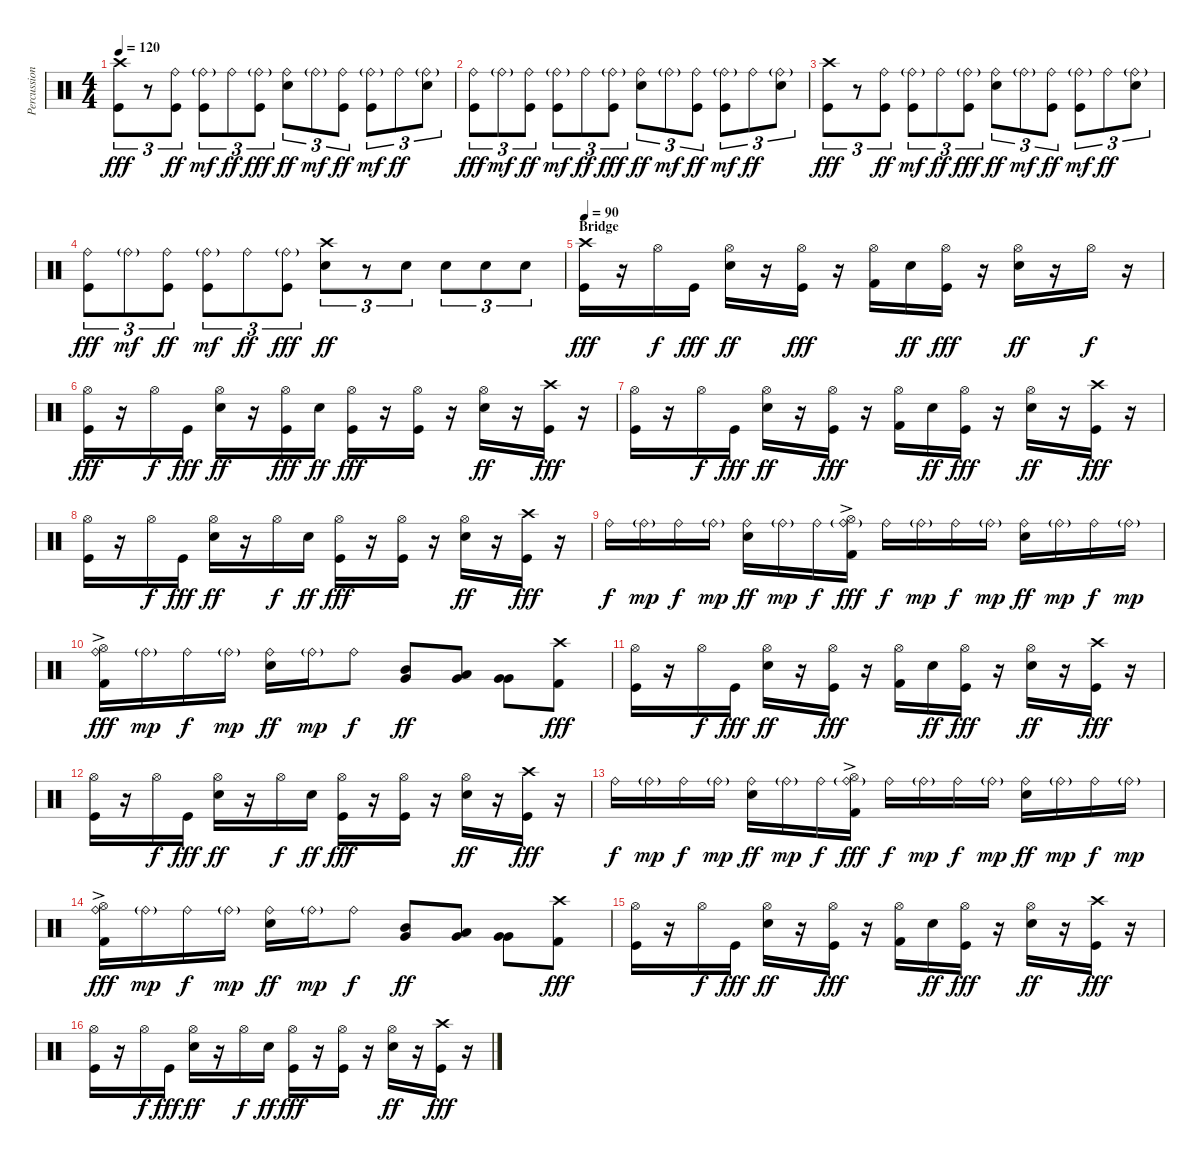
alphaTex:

\track ("Percussion" "Percussion") {instrument percussion}
\staff {score}
\articulation defaults
\ts (4 4)
\tempo 120
\clef neutral
\ks c
("Crash high (hit)" "Kick (hit)").8{tu (3 2) dy fff} r.8{tu (3 2)} ("Ride (bell)" "Kick (hit)").8{tu (3 2) dy ff} ("Ride (bell)"{g} "Kick (hit)").8{tu (3 2) dy mf} "Ride (bell)".8{tu (3 2) dy ff} ("Ride (bell)"{g} "Kick (hit)").8{tu (3 2) dy fff} ("Ride (bell)" "Snare (hit) 2").8{tu (3 2) dy ff} "Ride (bell)"{g}.8{tu (3 2) dy mf} ("Ride (bell)" "Kick (hit)").8{tu (3 2) dy ff} ("Ride (bell)"{g} "Kick (hit)").8{tu (3 2) dy mf} "Ride (bell)".8{tu (3 2) dy ff} ("Ride (bell)"{g} "Snare (hit) 2").8{tu (3 2)} |
("Ride (bell)" "Kick (hit)").8{tu (3 2) dy fff} "Ride (bell)"{g}.8{tu (3 2) dy mf} ("Ride (bell)" "Kick (hit)").8{tu (3 2) dy ff} ("Ride (bell)"{g} "Kick (hit)").8{tu (3 2) dy mf} "Ride (bell)".8{tu (3 2) dy ff} ("Ride (bell)"{g} "Kick (hit)").8{tu (3 2) dy fff} ("Ride (bell)" "Snare (hit) 2").8{tu (3 2) dy ff} "Ride (bell)"{g}.8{tu (3 2) dy mf} ("Ride (bell)" "Kick (hit)").8{tu (3 2) dy ff} ("Ride (bell)"{g} "Kick (hit)").8{tu (3 2) dy mf} "Ride (bell)".8{tu (3 2) dy ff} ("Ride (bell)"{g} "Snare (hit) 2").8{tu (3 2)} |
("Crash high (hit)" "Kick (hit)").8{tu (3 2) dy fff} r.8{tu (3 2)} ("Ride (bell)" "Kick (hit)").8{tu (3 2) dy ff} ("Ride (bell)"{g} "Kick (hit)").8{tu (3 2) dy mf} "Ride (bell)".8{tu (3 2) dy ff} ("Ride (bell)"{g} "Kick (hit)").8{tu (3 2) dy fff} ("Ride (bell)" "Snare (hit) 2").8{tu (3 2) dy ff} "Ride (bell)"{g}.8{tu (3 2) dy mf} ("Ride (bell)" "Kick (hit)").8{tu (3 2) dy ff} ("Ride (bell)"{g} "Kick (hit)").8{tu (3 2) dy mf} "Ride (bell)".8{tu (3 2) dy ff} ("Ride (bell)"{g} "Snare (hit) 2").8{tu (3 2)} |
("Ride (bell)" "Kick (hit)").8{tu (3 2) dy fff} "Ride (bell)"{g}.8{tu (3 2) dy mf} ("Ride (bell)" "Kick (hit)").8{tu (3 2) dy ff} ("Ride (bell)"{g} "Kick (hit)").8{tu (3 2) dy mf} "Ride (bell)".8{tu (3 2) dy ff} ("Ride (bell)"{g} "Kick (hit)").8{tu (3 2) dy fff} ("Crash high (hit)" "Snare (hit) 2").8{tu (3 2) dy ff} r.8{tu (3 2)} "Snare (hit) 2".8{tu (3 2)} "Snare (hit) 2".8{tu (3 2)} "Snare (hit) 2".8{tu (3 2)} "Snare (hit) 2".8{tu (3 2)} |
\section ("" "Bridge")
\tempo 90
("Crash high (hit)" "Kick (hit)").16{dy fff} r.16 "Hi-Hat (open)".16{dy f} "Kick (hit)".16{dy fff} ("Hi-Hat (open)" "Snare (hit) 2").16{dy ff} r.16 ("Hi-Hat (open)" "Kick (hit)").16{dy fff} r.16 ("Hi-Hat (open)" "Kick (hit) 2").16 "Snare (hit) 2".16{dy ff} ("Hi-Hat (open)" "Kick (hit)").16{dy fff} r.16 ("Hi-Hat (open)" "Snare (hit) 2").16{dy ff} r.16 "Hi-Hat (open)".16{dy f} r.16 |
("Hi-Hat (open)" "Kick (hit)").16{dy fff} r.16 "Hi-Hat (open)".16{dy f} "Kick (hit)".16{dy fff} ("Hi-Hat (open)" "Snare (hit) 2").16{dy ff} r.16 ("Hi-Hat (open)" "Kick (hit)").16{dy fff} "Snare (hit) 2".16{dy ff} ("Hi-Hat (open)" "Kick (hit)").16{dy fff} r.16 ("Hi-Hat (open)" "Kick (hit)").16 r.16 ("Hi-Hat (open)" "Snare (hit) 2").16{dy ff} r.16 ("Crash high (hit)" "Kick (hit)").16{dy fff} r.16 |
("Hi-Hat (open)" "Kick (hit)").16 r.16 "Hi-Hat (open)".16{dy f} "Kick (hit)".16{dy fff} ("Hi-Hat (open)" "Snare (hit) 2").16{dy ff} r.16 ("Hi-Hat (open)" "Kick (hit)").16{dy fff} r.16 ("Hi-Hat (open)" "Kick (hit) 2").16 "Snare (hit) 2".16{dy ff} ("Hi-Hat (open)" "Kick (hit)").16{dy fff} r.16 ("Hi-Hat (open)" "Snare (hit) 2").16{dy ff} r.16 ("Crash high (hit)" "Kick (hit)").16{dy fff} r.16 |
("Hi-Hat (open)" "Kick (hit)").16 r.16 "Hi-Hat (open)".16{dy f} "Kick (hit)".16{dy fff} ("Hi-Hat (open)" "Snare (hit) 2").16{dy ff} r.16 "Hi-Hat (open)".16{dy f} "Snare (hit) 2".16{dy ff} ("Hi-Hat (open)" "Kick (hit)").16{dy fff} r.16 ("Hi-Hat (open)" "Kick (hit)").16 r.16 ("Hi-Hat (open)" "Snare (hit) 2").16{dy ff} r.16 ("Crash high (hit)" "Kick (hit)").16{dy fff} r.16 |
"Ride (bell)".16{dy f} "Ride (bell)"{g}.16{dy mp} "Ride (bell)".16{dy f} "Ride (bell)"{g}.16{dy mp} ("Ride (bell)" "Snare (hit) 2").16{dy ff} "Ride (bell)"{g}.16{dy mp} "Ride (bell)".16{dy f} ("Hi-Hat (open)"{ac} "Ride (bell)"{g} "Kick (hit) 2").16{dy fff} "Ride (bell)".16{dy f} "Ride (bell)"{g}.16{dy mp} "Ride (bell)".16{dy f} "Ride (bell)"{g}.16{dy mp} ("Ride (bell)" "Snare (hit) 2").16{dy ff} "Ride (bell)"{g}.16{dy mp} "Ride (bell)".16{dy f} "Ride (bell)"{g}.16{dy mp} |
("Hi-Hat (open)"{ac} "Ride (bell)" "Kick (hit) 2").16{dy fff} "Ride (bell)"{g}.16{dy mp} "Ride (bell)".16{dy f} "Ride (bell)"{g}.16{dy mp} ("Ride (bell)" "Snare (hit) 2").16{dy ff} "Ride (bell)"{g}.16{dy mp} "Ride (bell)".8{dy f} ("Mid Tom (hit)" "Very Low Tom (hit)").8{dy ff} ("Low Tom (hit)" "Very Low Tom (hit)").8 ("Very Low Tom (hit)" "Very Low Tom (hit)").8 ("Crash high (hit)" "Kick (hit) 2").8{dy fff} |
("Hi-Hat (open)" "Kick (hit)").16 r.16 "Hi-Hat (open)".16{dy f} "Kick (hit)".16{dy fff} ("Hi-Hat (open)" "Snare (hit) 2").16{dy ff} r.16 ("Hi-Hat (open)" "Kick (hit)").16{dy fff} r.16 ("Hi-Hat (open)" "Kick (hit) 2").16 "Snare (hit) 2".16{dy ff} ("Hi-Hat (open)" "Kick (hit)").16{dy fff} r.16 ("Hi-Hat (open)" "Snare (hit) 2").16{dy ff} r.16 ("Crash high (hit)" "Kick (hit)").16{dy fff} r.16 |
("Hi-Hat (open)" "Kick (hit)").16 r.16 "Hi-Hat (open)".16{dy f} "Kick (hit)".16{dy fff} ("Hi-Hat (open)" "Snare (hit) 2").16{dy ff} r.16 "Hi-Hat (open)".16{dy f} "Snare (hit) 2".16{dy ff} ("Hi-Hat (open)" "Kick (hit)").16{dy fff} r.16 ("Hi-Hat (open)" "Kick (hit)").16 r.16 ("Hi-Hat (open)" "Snare (hit) 2").16{dy ff} r.16 ("Crash high (hit)" "Kick (hit)").16{dy fff} r.16 |
"Ride (bell)".16{dy f} "Ride (bell)"{g}.16{dy mp} "Ride (bell)".16{dy f} "Ride (bell)"{g}.16{dy mp} ("Ride (bell)" "Snare (hit) 2").16{dy ff} "Ride (bell)"{g}.16{dy mp} "Ride (bell)".16{dy f} ("Hi-Hat (open)"{ac} "Ride (bell)"{g} "Kick (hit) 2").16{dy fff} "Ride (bell)".16{dy f} "Ride (bell)"{g}.16{dy mp} "Ride (bell)".16{dy f} "Ride (bell)"{g}.16{dy mp} ("Ride (bell)" "Snare (hit) 2").16{dy ff} "Ride (bell)"{g}.16{dy mp} "Ride (bell)".16{dy f} "Ride (bell)"{g}.16{dy mp} |
("Hi-Hat (open)"{ac} "Ride (bell)" "Kick (hit) 2").16{dy fff} "Ride (bell)"{g}.16{dy mp} "Ride (bell)".16{dy f} "Ride (bell)"{g}.16{dy mp} ("Ride (bell)" "Snare (hit) 2").16{dy ff} "Ride (bell)"{g}.16{dy mp} "Ride (bell)".8{dy f} ("Mid Tom (hit)" "Very Low Tom (hit)").8{dy ff} ("Low Tom (hit)" "Very Low Tom (hit)").8 ("Very Low Tom (hit)" "Very Low Tom (hit)").8 ("Crash high (hit)" "Kick (hit) 2").8{dy fff} |
("Hi-Hat (open)" "Kick (hit)").16 r.16 "Hi-Hat (open)".16{dy f} "Kick (hit)".16{dy fff} ("Hi-Hat (open)" "Snare (hit) 2").16{dy ff} r.16 ("Hi-Hat (open)" "Kick (hit)").16{dy fff} r.16 ("Hi-Hat (open)" "Kick (hit) 2").16 "Snare (hit) 2".16{dy ff} ("Hi-Hat (open)" "Kick (hit)").16{dy fff} r.16 ("Hi-Hat (open)" "Snare (hit) 2").16{dy ff} r.16 ("Crash high (hit)" "Kick (hit)").16{dy fff} r.16 |
("Hi-Hat (open)" "Kick (hit)").16 r.16 "Hi-Hat (open)".16{dy f} "Kick (hit)".16{dy fff} ("Hi-Hat (open)" "Snare (hit) 2").16{dy ff} r.16 "Hi-Hat (open)".16{dy f} "Snare (hit) 2".16{dy ff} ("Hi-Hat (open)" "Kick (hit)").16{dy fff} r.16 ("Hi-Hat (open)" "Kick (hit)").16 r.16 ("Hi-Hat (open)" "Snare (hit) 2").16{dy ff} r.16 ("Crash high (hit)" "Kick (hit)").16{dy fff} r.16
